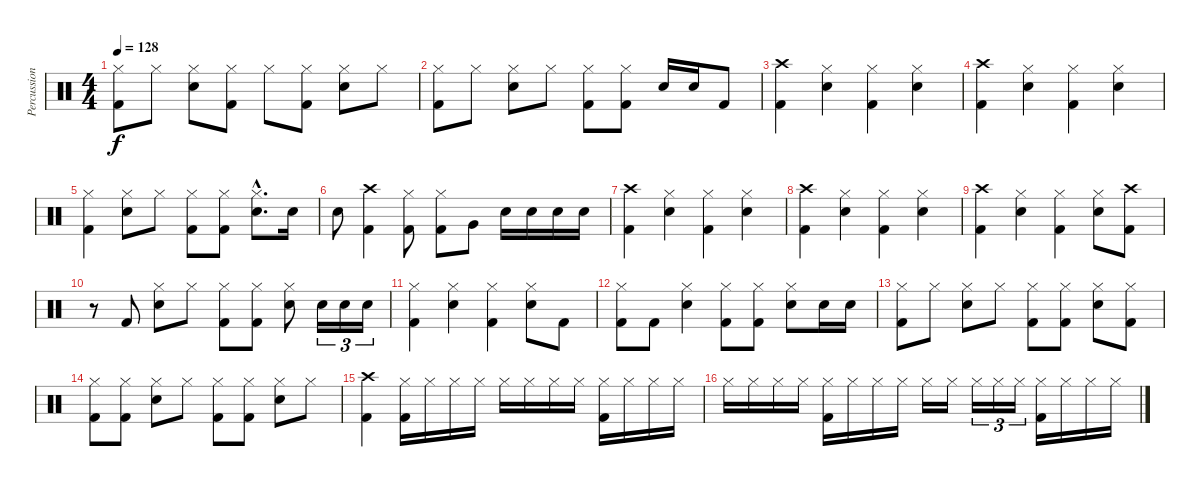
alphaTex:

\track ("Percussion" "Percussion") {instrument percussion}
\staff {score}
\articulation defaults
\ts (4 4)
\tempo 128
\clef neutral
\ks c
("Kick (hit) 2" "Hi-Hat (closed)").8{dy f} "Hi-Hat (closed)".8 ("Snare (hit) 2" "Hi-Hat (closed)").8 ("Kick (hit) 2" "Hi-Hat (closed)").8 "Hi-Hat (closed)".8 ("Kick (hit) 2" "Hi-Hat (closed)").8 ("Snare (hit) 2" "Hi-Hat (closed)").8 "Hi-Hat (closed)".8 |
("Kick (hit) 2" "Hi-Hat (closed)").8 "Hi-Hat (closed)".8 ("Snare (hit) 2" "Hi-Hat (closed)").8 "Hi-Hat (closed)".8 ("Kick (hit) 2" "Hi-Hat (closed)").8 ("Kick (hit) 2" "Hi-Hat (closed)").8 "Snare (hit) 2".16 "Snare (hit) 2".16 "Kick (hit) 2".8 |
("Kick (hit) 2" "Crash high (hit)").4 ("Snare (hit) 2" "Hi-Hat (closed)").4 ("Kick (hit) 2" "Hi-Hat (closed)").4 ("Snare (hit) 2" "Hi-Hat (closed)").4 |
("Kick (hit) 2" "Crash high (hit)").4 ("Snare (hit) 2" "Hi-Hat (closed)").4 ("Kick (hit) 2" "Hi-Hat (closed)").4 ("Snare (hit) 2" "Hi-Hat (closed)").4 |
("Kick (hit) 2" "Hi-Hat (closed)").4 ("Snare (hit) 2" "Hi-Hat (closed)").8 "Hi-Hat (closed)".8 ("Kick (hit) 2" "Hi-Hat (closed)").8 ("Kick (hit) 2" "Hi-Hat (closed)").8 ("Snare (hit) 2"{hac} "Hi-Hat (closed)"{hac}).8{d} "Snare (hit) 2".16 |
"Snare (hit) 2".8 ("Kick (hit) 2" "Crash high (hit)").4 ("Kick (hit) 2" "Hi-Hat (closed)").8 ("Kick (hit) 2" "Hi-Hat (closed)").8 "Very Low Tom (hit)".8 "Snare (hit) 2".16 "Snare (hit) 2".16 "Snare (hit) 2".16 "Snare (hit) 2".16 |
("Kick (hit) 2" "Crash high (hit)").4 ("Snare (hit) 2" "Hi-Hat (closed)").4 ("Kick (hit) 2" "Hi-Hat (closed)").4 ("Snare (hit) 2" "Hi-Hat (closed)").4 |
("Kick (hit) 2" "Crash high (hit)").4 ("Snare (hit) 2" "Hi-Hat (closed)").4 ("Kick (hit) 2" "Hi-Hat (closed)").4 ("Snare (hit) 2" "Hi-Hat (closed)").4 |
("Kick (hit) 2" "Crash high (hit)").4 ("Snare (hit) 2" "Hi-Hat (closed)").4 ("Kick (hit) 2" "Hi-Hat (closed)").4 ("Snare (hit) 2" "Hi-Hat (closed)").8 ("Kick (hit) 2" "Crash high (hit)").8 |
r.8 "Kick (hit) 2".8 ("Snare (hit) 2" "Hi-Hat (closed)").8 "Hi-Hat (closed)".8 ("Kick (hit) 2" "Hi-Hat (closed)").8 ("Kick (hit) 2" "Hi-Hat (closed)").8 ("Snare (hit) 2" "Hi-Hat (closed)").8 "Snare (hit) 2".16{tu (3 2)} "Snare (hit) 2".16{tu (3 2)} "Snare (hit) 2".16{tu (3 2)} |
("Kick (hit) 2" "Hi-Hat (closed)").4 ("Snare (hit) 2" "Hi-Hat (closed)").4 ("Kick (hit) 2" "Hi-Hat (closed)").4 ("Snare (hit) 2" "Hi-Hat (closed)").8 "Kick (hit) 2".8 |
("Kick (hit) 2" "Hi-Hat (closed)").8 "Kick (hit) 2".8 ("Snare (hit) 2" "Hi-Hat (closed)").4 ("Kick (hit) 2" "Hi-Hat (closed)").8 ("Kick (hit) 2" "Hi-Hat (closed)").8 ("Snare (hit) 2" "Hi-Hat (closed)").8 "Snare (hit) 2".16 "Snare (hit) 2".16 |
("Kick (hit) 2" "Hi-Hat (closed)").8 "Hi-Hat (closed)".8 ("Snare (hit) 2" "Hi-Hat (closed)").8 "Hi-Hat (closed)".8 ("Kick (hit) 2" "Hi-Hat (closed)").8 ("Kick (hit) 2" "Hi-Hat (closed)").8 ("Snare (hit) 2" "Hi-Hat (closed)").8 ("Kick (hit) 2" "Hi-Hat (closed)").8 |
("Kick (hit) 2" "Hi-Hat (closed)").8 ("Kick (hit) 2" "Hi-Hat (closed)").8 ("Snare (hit) 2" "Hi-Hat (closed)").8 "Hi-Hat (closed)".8 ("Kick (hit) 2" "Hi-Hat (closed)").8 ("Kick (hit) 2" "Hi-Hat (closed)").8 ("Snare (hit) 2" "Hi-Hat (closed)").8 "Hi-Hat (closed)".8 |
("Kick (hit) 2" "Crash high (hit)").4 ("Kick (hit) 2" "Hi-Hat (closed)").16 "Hi-Hat (closed)".16 "Hi-Hat (closed)".16 "Hi-Hat (closed)".16 "Hi-Hat (closed)".16 "Hi-Hat (closed)".16 "Hi-Hat (closed)".16 "Hi-Hat (closed)".16 ("Kick (hit) 2" "Hi-Hat (closed)").16 "Hi-Hat (closed)".16 "Hi-Hat (closed)".16 "Hi-Hat (closed)".16 |
"Hi-Hat (closed)".16 "Hi-Hat (closed)".16 "Hi-Hat (closed)".16 "Hi-Hat (closed)".16 ("Kick (hit) 2" "Hi-Hat (closed)").16 "Hi-Hat (closed)".16 "Hi-Hat (closed)".16 "Hi-Hat (closed)".16 "Hi-Hat (closed)".16 "Hi-Hat (closed)".16 "Hi-Hat (closed)".16{tu (3 2)} "Hi-Hat (closed)".16{tu (3 2)} "Hi-Hat (closed)".16{tu (3 2)} ("Kick (hit) 2" "Hi-Hat (closed)").16 "Hi-Hat (closed)".16 "Hi-Hat (closed)".16 "Hi-Hat (closed)".16
